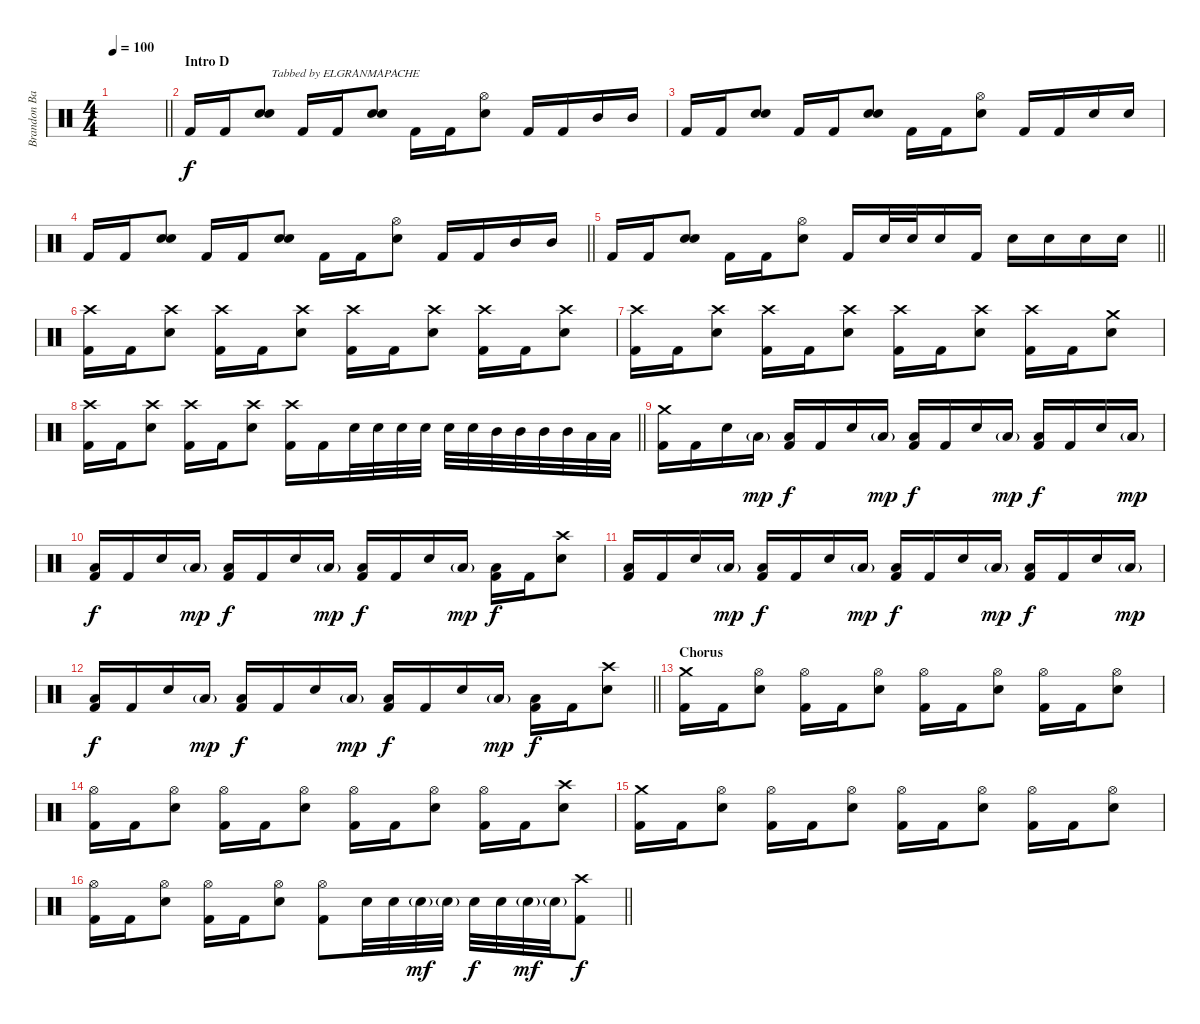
\track ("Brandon Barnes" "Brandon Ba") {instrument percussion}
\staff {score}
\articulation defaults
\ts (4 4)
\tempo 100
\clef neutral
\barLineRight lightlight
\ks c
|
\section ("" "Intro D")
"Kick (hit) 2".16{txt "                           Tabbed by ELGRANMAPACHE" dy f} "Kick (hit) 2".16 ("Electric Snare (hit)" "Electric Snare (hit)").8 "Kick (hit) 2".16 "Kick (hit) 2".16 ("Electric Snare (hit)" "Electric Snare (hit)").8 "Kick (hit) 2".16 "Kick (hit) 2".16 ("Hi-Hat (open)" "Electric Snare (hit)").8 "Kick (hit) 2".16 "Kick (hit) 2".16 "Mid Tom (hit)".16 "Mid Tom (hit)".16 |
"Kick (hit) 2".16 "Kick (hit) 2".16 ("Electric Snare (hit)" "Electric Snare (hit)").8 "Kick (hit) 2".16 "Kick (hit) 2".16 ("Electric Snare (hit)" "Electric Snare (hit)").8 "Kick (hit) 2".16 "Kick (hit) 2".16 ("Hi-Hat (open)" "Electric Snare (hit)").8 "Kick (hit) 2".16 "Kick (hit) 2".16 "Electric Snare (hit)".16 "Electric Snare (hit)".16 |
\barLineRight lightlight "Kick (hit) 2".16 "Kick (hit) 2".16
("Electric Snare (hit)" "Electric Snare (hit)").8 "Kick (hit) 2".16 "Kick (hit) 2".16 ("Electric Snare (hit)" "Electric Snare (hit)").8 "Kick (hit) 2".16 "Kick (hit) 2".16 ("Hi-Hat (open)" "Electric Snare (hit)").8 "Kick (hit) 2".16 "Kick (hit) 2".16 "Mid Tom (hit)".16 "Mid Tom (hit)".16 |
\barLineRight lightlight "Kick (hit) 2".16 "Kick (hit) 2".16
("Electric Snare (hit)" "Electric Snare (hit)").8 "Kick (hit) 2".16 "Kick (hit) 2".16 ("Hi-Hat (open)" "Electric Snare (hit)").8 "Kick (hit) 2".16 "Electric Snare (hit)".32 "Electric Snare (hit)".32 "Electric Snare (hit)".16 "Kick (hit) 2".16 "Electric Snare (hit)".16 "Electric Snare (hit)".16 "Electric Snare (hit)".16 "Electric Snare (hit)".16 |
("Crash high (hit)" "Kick (hit) 2").16 "Kick (hit) 2".16 ("Crash high (hit)" "Electric Snare (hit)").8 ("Crash high (hit)" "Kick (hit) 2").16 "Kick (hit) 2".16 ("Crash high (hit)" "Electric Snare (hit)").8 ("Crash high (hit)" "Kick (hit) 2").16 "Kick (hit) 2".16 ("Crash high (hit)" "Electric Snare (hit)").8 ("Crash high (hit)" "Kick (hit) 2").16 "Kick (hit) 2".16 ("Crash high (hit)" "Electric Snare (hit)").8 |
("Crash high (hit)" "Kick (hit) 2").16 "Kick (hit) 2".16 ("Crash high (hit)" "Electric Snare (hit)").8 ("Crash high (hit)" "Kick (hit) 2").16 "Kick (hit) 2".16 ("Crash high (hit)" "Electric Snare (hit)").8 ("Crash high (hit)" "Kick (hit) 2").16 "Kick (hit) 2".16 ("Crash high (hit)" "Electric Snare (hit)").8 ("Crash high (hit)" "Kick (hit) 2").16 "Kick (hit) 2".16 ("Crash medium (hit)" "Electric Snare (hit)").8 |
\barLineRight lightlight
("Crash high (hit)" "Kick (hit) 2").16 "Kick (hit) 2".16 ("Crash high (hit)" "Electric Snare (hit)").8 ("Crash high (hit)" "Kick (hit) 2").16 "Kick (hit) 2".16 ("Crash high (hit)" "Electric Snare (hit)").8 ("Crash high (hit)" "Kick (hit) 2").16 "Kick (hit) 2".16 "Electric Snare (hit)".32 "Electric Snare (hit)".32 "Electric Snare (hit)".32 "Electric Snare (hit)".32 "Electric Snare (hit)".32 "Electric Snare (hit)".32 "Mid Tom (hit)".32 "Mid Tom (hit)".32 "Mid Tom (hit)".32 "Mid Tom (hit)".32 "Low Tom (hit)".32 "Low Tom (hit)".32 |
("Crash medium (hit)" "Kick (hit) 2").16 "Kick (hit) 2".16 "Electric Snare (hit)".16 "Low Floor Tom (hit)"{g}.16{dy mp} ("Low Floor Tom (hit)" "Kick (hit) 2").16{dy f} "Kick (hit) 2".16 "Electric Snare (hit)".16 "Low Floor Tom (hit)"{g}.16{dy mp} ("Low Floor Tom (hit)" "Kick (hit) 2").16{dy f} "Kick (hit) 2".16 "Electric Snare (hit)".16 "Low Floor Tom (hit)"{g}.16{dy mp} ("Low Floor Tom (hit)" "Kick (hit) 2").16{dy f} "Kick (hit) 2".16 "Electric Snare (hit)".16 "Low Floor Tom (hit)"{g}.16{dy mp} |
("Low Floor Tom (hit)" "Kick (hit) 2").16{dy f} "Kick (hit) 2".16 "Electric Snare (hit)".16 "Low Floor Tom (hit)"{g}.16{dy mp} ("Low Floor Tom (hit)" "Kick (hit) 2").16{dy f} "Kick (hit) 2".16 "Electric Snare (hit)".16 "Low Floor Tom (hit)"{g}.16{dy mp} ("Low Floor Tom (hit)" "Kick (hit) 2").16{dy f} "Kick (hit) 2".16 "Electric Snare (hit)".16 "Low Floor Tom (hit)"{g}.16{dy mp} ("Low Floor Tom (hit)" "Kick (hit) 2").16{dy f} "Kick (hit) 2".16 ("Crash high (hit)" "Electric Snare (hit)").8 |
("Low Floor Tom (hit)" "Kick (hit) 2").16 "Kick (hit) 2".16 "Electric Snare (hit)".16 "Low Floor Tom (hit)"{g}.16{dy mp} ("Low Floor Tom (hit)" "Kick (hit) 2").16{dy f} "Kick (hit) 2".16 "Electric Snare (hit)".16 "Low Floor Tom (hit)"{g}.16{dy mp} ("Low Floor Tom (hit)" "Kick (hit) 2").16{dy f} "Kick (hit) 2".16 "Electric Snare (hit)".16 "Low Floor Tom (hit)"{g}.16{dy mp} ("Low Floor Tom (hit)" "Kick (hit) 2").16{dy f} "Kick (hit) 2".16 "Electric Snare (hit)".16 "Low Floor Tom (hit)"{g}.16{dy mp} |
\barLineRight lightlight
("Low Floor Tom (hit)" "Kick (hit) 2").16{dy f} "Kick (hit) 2".16 "Electric Snare (hit)".16 "Low Floor Tom (hit)"{g}.16{dy mp} ("Low Floor Tom (hit)" "Kick (hit) 2").16{dy f} "Kick (hit) 2".16 "Electric Snare (hit)".16 "Low Floor Tom (hit)"{g}.16{dy mp} ("Low Floor Tom (hit)" "Kick (hit) 2").16{dy f} "Kick (hit) 2".16 "Electric Snare (hit)".16 "Low Floor Tom (hit)"{g}.16{dy mp} ("Low Floor Tom (hit)" "Kick (hit) 2").16{dy f} "Kick (hit) 2".16 ("Crash high (hit)" "Electric Snare (hit)").8 |
\section ("" "Chorus")
("Crash medium (hit)" "Kick (hit) 2").16 "Kick (hit) 2".16 ("Hi-Hat (open)" "Electric Snare (hit)").8 ("Hi-Hat (open)" "Kick (hit) 2").16 "Kick (hit) 2".16 ("Hi-Hat (open)" "Electric Snare (hit)").8 ("Hi-Hat (open)" "Kick (hit) 2").16 "Kick (hit) 2".16 ("Hi-Hat (open)" "Electric Snare (hit)").8 ("Hi-Hat (open)" "Kick (hit) 2").16 "Kick (hit) 2".16 ("Hi-Hat (open)" "Electric Snare (hit)").8 |
("Hi-Hat (open)" "Kick (hit) 2").16 "Kick (hit) 2".16 ("Hi-Hat (open)" "Electric Snare (hit)").8 ("Hi-Hat (open)" "Kick (hit) 2").16 "Kick (hit) 2".16 ("Hi-Hat (open)" "Electric Snare (hit)").8 ("Hi-Hat (open)" "Kick (hit) 2").16 "Kick (hit) 2".16 ("Hi-Hat (open)" "Electric Snare (hit)").8 ("Hi-Hat (open)" "Kick (hit) 2").16 "Kick (hit) 2".16 ("Crash high (hit)" "Electric Snare (hit)").8 |
("Crash medium (hit)" "Kick (hit) 2").16 "Kick (hit) 2".16 ("Hi-Hat (open)" "Electric Snare (hit)").8 ("Hi-Hat (open)" "Kick (hit) 2").16 "Kick (hit) 2".16 ("Hi-Hat (open)" "Electric Snare (hit)").8 ("Hi-Hat (open)" "Kick (hit) 2").16 "Kick (hit) 2".16 ("Hi-Hat (open)" "Electric Snare (hit)").8 ("Hi-Hat (open)" "Kick (hit) 2").16 "Kick (hit) 2".16 ("Hi-Hat (open)" "Electric Snare (hit)").8 |
\barLineRight lightlight
("Hi-Hat (open)" "Kick (hit) 2").16 "Kick (hit) 2".16 ("Hi-Hat (open)" "Electric Snare (hit)").8 ("Hi-Hat (open)" "Kick (hit) 2").16 "Kick (hit) 2".16 ("Hi-Hat (open)" "Electric Snare (hit)").8 ("Hi-Hat (open)" "Kick (hit) 2").8 "Electric Snare (hit)".32 "Electric Snare (hit)".32 "Electric Snare (hit)"{g}.32{dy mf} "Electric Snare (hit)"{g}.32 "Electric Snare (hit)".32{dy f} "Electric Snare (hit)".32 "Electric Snare (hit)"{g}.32{dy mf} "Electric Snare (hit)"{g}.32 ("Crash high (hit)" "Kick (hit) 2").8{dy f}
